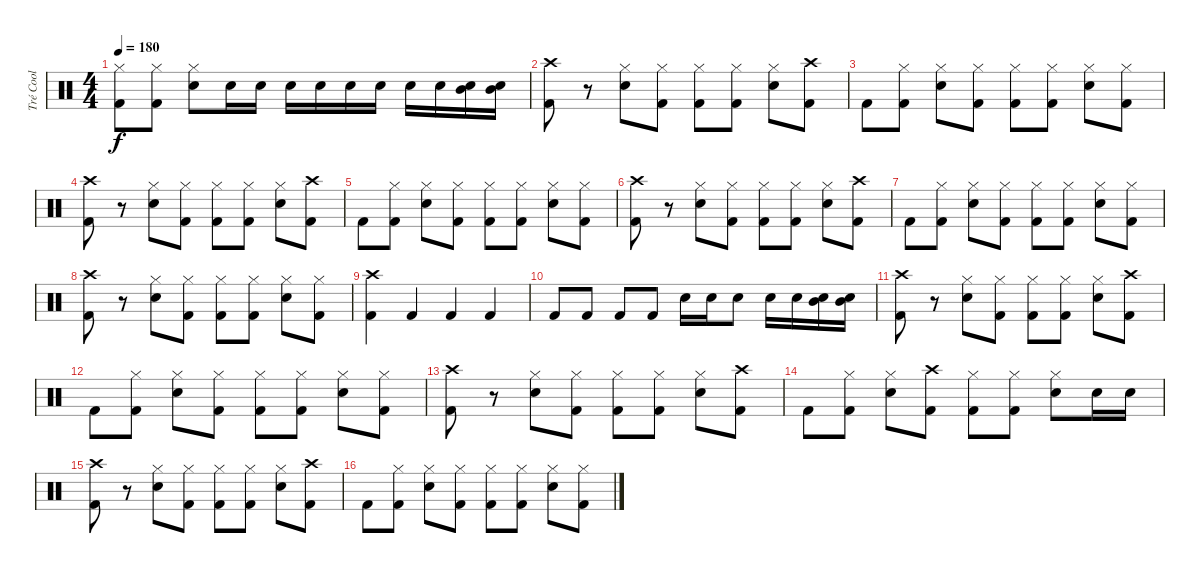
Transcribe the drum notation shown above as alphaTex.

\track ("Tré Cool" "Tré Cool") {instrument percussion}
\staff {score}
\articulation defaults
\ts (4 4)
\tempo 180
\clef neutral
\ks c
("Hi-Hat (closed)" "Kick (hit) 2").8{dy f} ("Hi-Hat (closed)" "Kick (hit) 2").8 ("Hi-Hat (closed)" "Snare (hit) 2").8 "Electric Snare (hit)".16 "Electric Snare (hit)".16 "Electric Snare (hit)".16 "Electric Snare (hit)".16 "Electric Snare (hit)".16 "Electric Snare (hit)".16 "Electric Snare (hit)".16 "Electric Snare (hit)".16 ("Mid Tom (hit)" "Electric Snare (hit)").16 ("Mid Tom (hit)" "Electric Snare (hit)").16 |
("Crash high (hit)" "Kick (hit) 2").8 r.8 ("Hi-Hat (closed)" "Snare (hit) 2").8 ("Hi-Hat (closed)" "Kick (hit) 2").8 ("Hi-Hat (closed)" "Kick (hit) 2").8 ("Hi-Hat (closed)" "Kick (hit) 2").8 ("Hi-Hat (closed)" "Snare (hit) 2").8 ("Crash high (hit)" "Kick (hit) 2").8 |
"Kick (hit) 2".8 ("Hi-Hat (closed)" "Kick (hit) 2").8 ("Hi-Hat (closed)" "Snare (hit) 2").8 ("Hi-Hat (closed)" "Kick (hit) 2").8 ("Hi-Hat (closed)" "Kick (hit) 2").8 ("Hi-Hat (closed)" "Kick (hit) 2").8 ("Hi-Hat (closed)" "Snare (hit) 2").8 ("Hi-Hat (closed)" "Kick (hit) 2").8 |
("Crash high (hit)" "Kick (hit) 2").8 r.8 ("Hi-Hat (closed)" "Snare (hit) 2").8 ("Hi-Hat (closed)" "Kick (hit) 2").8 ("Hi-Hat (closed)" "Kick (hit) 2").8 ("Hi-Hat (closed)" "Kick (hit) 2").8 ("Hi-Hat (closed)" "Snare (hit) 2").8 ("Crash high (hit)" "Kick (hit) 2").8 |
"Kick (hit) 2".8 ("Hi-Hat (closed)" "Kick (hit) 2").8 ("Hi-Hat (closed)" "Snare (hit) 2").8 ("Hi-Hat (closed)" "Kick (hit) 2").8 ("Hi-Hat (closed)" "Kick (hit) 2").8 ("Hi-Hat (closed)" "Kick (hit) 2").8 ("Hi-Hat (closed)" "Snare (hit) 2").8 ("Hi-Hat (closed)" "Kick (hit) 2").8 |
("Crash high (hit)" "Kick (hit) 2").8 r.8 ("Hi-Hat (closed)" "Snare (hit) 2").8 ("Hi-Hat (closed)" "Kick (hit) 2").8 ("Hi-Hat (closed)" "Kick (hit) 2").8 ("Hi-Hat (closed)" "Kick (hit) 2").8 ("Hi-Hat (closed)" "Snare (hit) 2").8 ("Crash high (hit)" "Kick (hit) 2").8 |
"Kick (hit) 2".8 ("Hi-Hat (closed)" "Kick (hit) 2").8 ("Hi-Hat (closed)" "Snare (hit) 2").8 ("Hi-Hat (closed)" "Kick (hit) 2").8 ("Hi-Hat (closed)" "Kick (hit) 2").8 ("Hi-Hat (closed)" "Kick (hit) 2").8 ("Hi-Hat (closed)" "Snare (hit) 2").8 ("Hi-Hat (closed)" "Kick (hit) 2").8 |
("Crash high (hit)" "Kick (hit) 2").8 r.8 ("Hi-Hat (closed)" "Snare (hit) 2").8 ("Hi-Hat (closed)" "Kick (hit) 2").8 ("Hi-Hat (closed)" "Kick (hit) 2").8 ("Hi-Hat (closed)" "Kick (hit) 2").8 ("Hi-Hat (closed)" "Snare (hit) 2").8 ("Hi-Hat (closed)" "Kick (hit) 2").8 |
("Crash high (hit)" "Kick (hit) 2").4 "Kick (hit) 2".4 "Kick (hit) 2".4 "Kick (hit) 2".4 |
"Kick (hit) 2".8 "Kick (hit) 2".8 "Kick (hit) 2".8 "Kick (hit) 2".8 "Electric Snare (hit)".16 "Electric Snare (hit)".16 "Electric Snare (hit)".8 "Electric Snare (hit)".16 "Electric Snare (hit)".16 ("Mid Tom (hit)" "Electric Snare (hit)").16 ("Mid Tom (hit)" "Electric Snare (hit)").16 |
("Crash high (hit)" "Kick (hit) 2").8 r.8 ("Hi-Hat (closed)" "Snare (hit) 2").8 ("Hi-Hat (closed)" "Kick (hit) 2").8 ("Hi-Hat (closed)" "Kick (hit) 2").8 ("Hi-Hat (closed)" "Kick (hit) 2").8 ("Hi-Hat (closed)" "Snare (hit) 2").8 ("Crash high (hit)" "Kick (hit) 2").8 |
"Kick (hit) 2".8 ("Hi-Hat (closed)" "Kick (hit) 2").8 ("Hi-Hat (closed)" "Snare (hit) 2").8 ("Hi-Hat (closed)" "Kick (hit) 2").8 ("Hi-Hat (closed)" "Kick (hit) 2").8 ("Hi-Hat (closed)" "Kick (hit) 2").8 ("Hi-Hat (closed)" "Snare (hit) 2").8 ("Hi-Hat (closed)" "Kick (hit) 2").8 |
("Crash high (hit)" "Kick (hit) 2").8 r.8 ("Hi-Hat (closed)" "Snare (hit) 2").8 ("Hi-Hat (closed)" "Kick (hit) 2").8 ("Hi-Hat (closed)" "Kick (hit) 2").8 ("Hi-Hat (closed)" "Kick (hit) 2").8 ("Hi-Hat (closed)" "Snare (hit) 2").8 ("Crash high (hit)" "Kick (hit) 2").8 |
"Kick (hit) 2".8 ("Hi-Hat (closed)" "Kick (hit) 2").8 ("Hi-Hat (closed)" "Snare (hit) 2").8 ("Crash high (hit)" "Kick (hit) 2").8 ("Hi-Hat (closed)" "Kick (hit) 2").8 ("Hi-Hat (closed)" "Kick (hit) 2").8 ("Hi-Hat (closed)" "Snare (hit) 2").8 "Electric Snare (hit)".16 "Electric Snare (hit)".16 |
("Crash high (hit)" "Kick (hit) 2").8 r.8 ("Hi-Hat (closed)" "Snare (hit) 2").8 ("Hi-Hat (closed)" "Kick (hit) 2").8 ("Hi-Hat (closed)" "Kick (hit) 2").8 ("Hi-Hat (closed)" "Kick (hit) 2").8 ("Hi-Hat (closed)" "Snare (hit) 2").8 ("Crash high (hit)" "Kick (hit) 2").8 |
"Kick (hit) 2".8 ("Hi-Hat (closed)" "Kick (hit) 2").8 ("Hi-Hat (closed)" "Snare (hit) 2").8 ("Hi-Hat (closed)" "Kick (hit) 2").8 ("Hi-Hat (closed)" "Kick (hit) 2").8 ("Hi-Hat (closed)" "Kick (hit) 2").8 ("Hi-Hat (closed)" "Snare (hit) 2").8 ("Hi-Hat (closed)" "Kick (hit) 2").8
